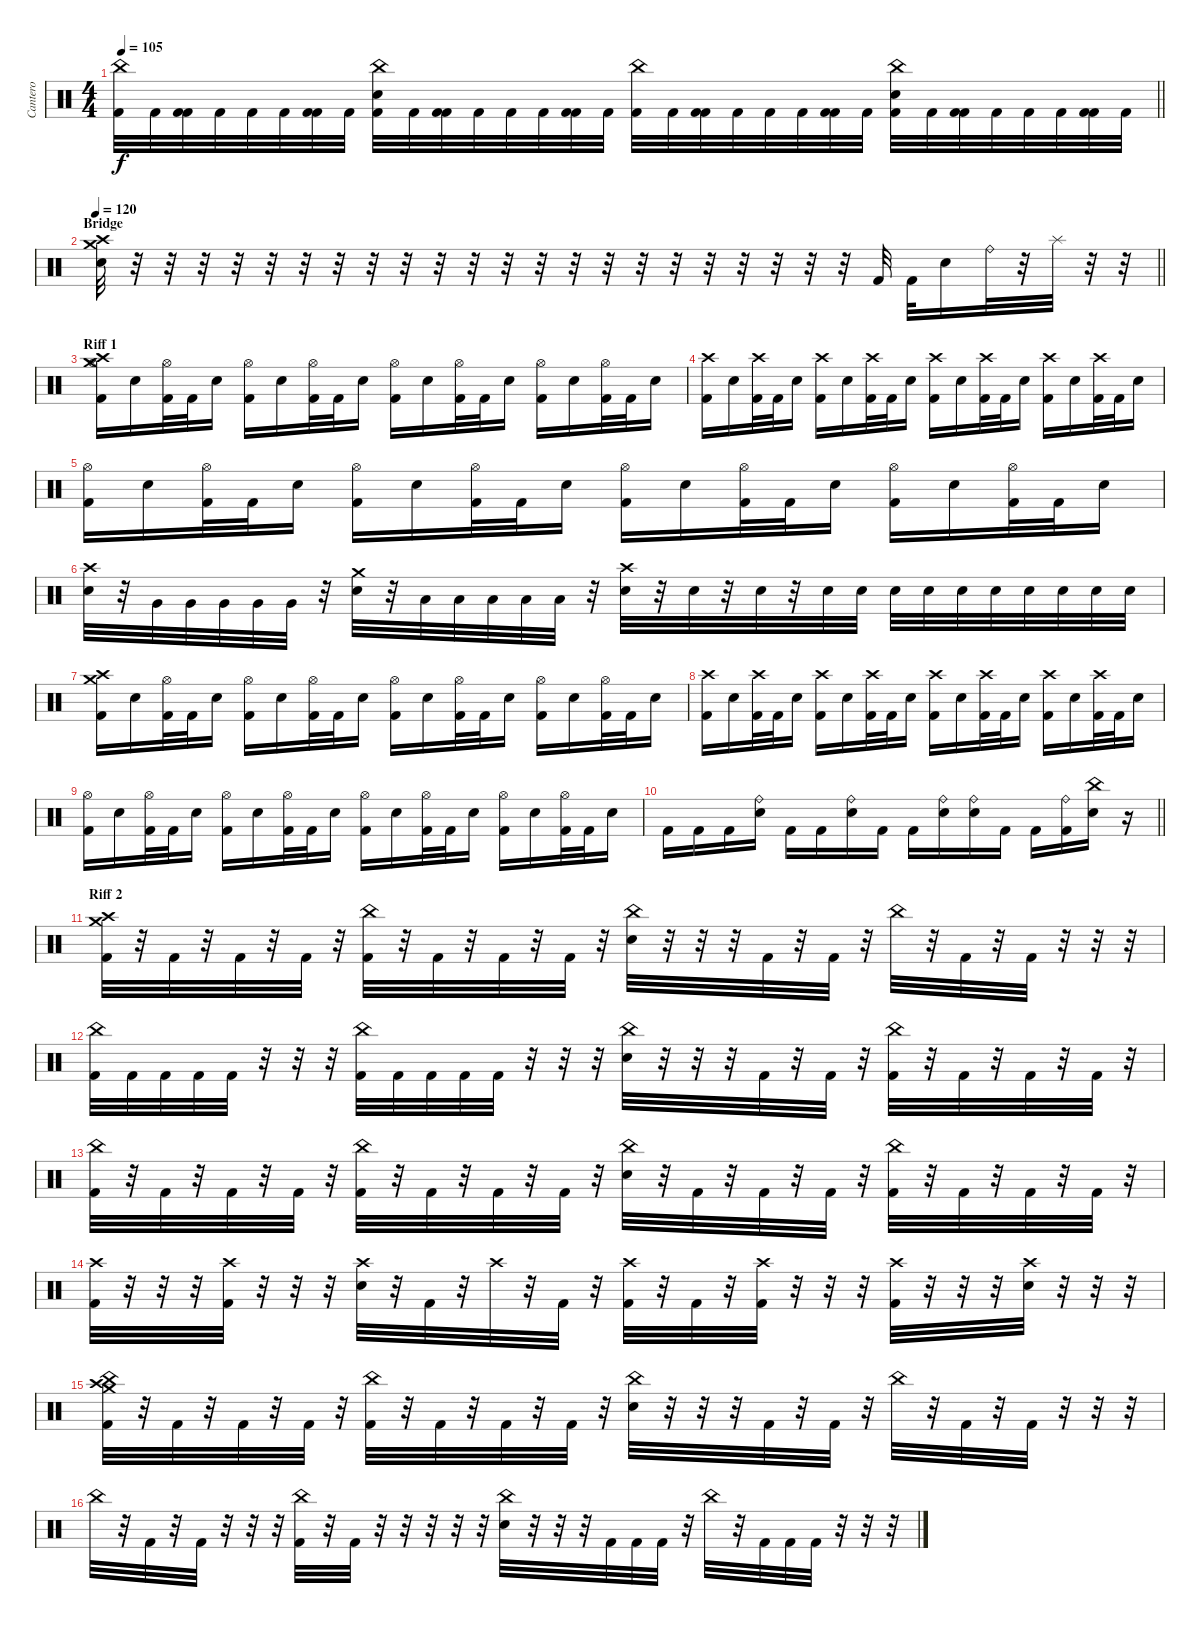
\track ("Cantero" "Cantero") {instrument percussion}
\staff {score}
\articulation defaults
\ts (4 4)
\tempo 105
\clef neutral
\barLineRight lightlight
\ks c
("China (hit)" "Kick (hit) 2").32{dy f} "Kick (hit) 2".32 ("Kick (hit) 2" "Kick (hit) 2").32 "Kick (hit) 2".32 "Kick (hit) 2".32 "Kick (hit) 2".32 ("Kick (hit) 2" "Kick (hit) 2").32 "Kick (hit) 2".32 ("China (hit)" "Electric Snare (hit)" "Kick (hit) 2").32 "Kick (hit) 2".32 ("Kick (hit) 2" "Kick (hit) 2").32 "Kick (hit) 2".32 "Kick (hit) 2".32 "Kick (hit) 2".32 ("Kick (hit) 2" "Kick (hit) 2").32 "Kick (hit) 2".32 ("China (hit)" "Kick (hit) 2").32 "Kick (hit) 2".32 ("Kick (hit) 2" "Kick (hit) 2").32 "Kick (hit) 2".32 "Kick (hit) 2".32 "Kick (hit) 2".32 ("Kick (hit) 2" "Kick (hit) 2").32 "Kick (hit) 2".32 ("China (hit)" "Electric Snare (hit)" "Kick (hit) 2").32 "Kick (hit) 2".32 ("Kick (hit) 2" "Kick (hit) 2").32 "Kick (hit) 2".32 "Kick (hit) 2".32 "Kick (hit) 2".32 ("Kick (hit) 2" "Kick (hit) 2").32 "Kick (hit) 2".32 |
\section ("" "Bridge")
\tempo 120
\barLineRight lightlight
("Crash high (hit)" "Crash medium (hit)" "Snare (hit) 2").32 r.32 r.32 r.32 r.32 r.32 r.32 r.32 r.32 r.32 r.32 r.32 r.32 r.32 r.32 r.32 r.32 r.32 r.32 r.32 r.32 r.32 r.32 "Kick (hit) 2".32 "Kick (hit) 2".32 "Electric Snare (hit)".16 "Ride (bell)".32 r.32 "Splash (hit)".32 r.32 r.32 |
\section ("" "Riff 1")
("Kick (hit) 2" "Crash high (hit)" "Crash medium (hit)" "Hi-Hat (open)").16 "Electric Snare (hit)".16 ("Kick (hit) 2" "Hi-Hat (open)").32 "Kick (hit) 2".32 "Electric Snare (hit)".16 ("Kick (hit) 2" "Hi-Hat (open)").16 "Electric Snare (hit)".16 ("Kick (hit) 2" "Hi-Hat (open)").32 "Kick (hit) 2".32 "Electric Snare (hit)".16 ("Kick (hit) 2" "Hi-Hat (open)").16 "Electric Snare (hit)".16 ("Kick (hit) 2" "Hi-Hat (open)").32 "Kick (hit) 2".32 "Electric Snare (hit)".16 ("Kick (hit) 2" "Hi-Hat (open)").16 "Electric Snare (hit)".16 ("Kick (hit) 2" "Hi-Hat (open)").32 "Kick (hit) 2".32 "Electric Snare (hit)".16 |
("Kick (hit) 2" "Crash high (hit)").16 "Electric Snare (hit)".16 ("Kick (hit) 2" "Crash high (hit)").32 "Kick (hit) 2".32 "Electric Snare (hit)".16 ("Kick (hit) 2" "Crash high (hit)").16 "Electric Snare (hit)".16 ("Kick (hit) 2" "Crash high (hit)").32 "Kick (hit) 2".32 "Electric Snare (hit)".16 ("Kick (hit) 2" "Crash high (hit)").16 "Electric Snare (hit)".16 ("Kick (hit) 2" "Crash high (hit)").32 "Kick (hit) 2".32 "Electric Snare (hit)".16 ("Kick (hit) 2" "Crash high (hit)").16 "Electric Snare (hit)".16 ("Kick (hit) 2" "Crash high (hit)").32 "Kick (hit) 2".32 "Electric Snare (hit)".16 |
("Kick (hit) 2" "Hi-Hat (open)").16 "Electric Snare (hit)".16 ("Kick (hit) 2" "Hi-Hat (open)").32 "Kick (hit) 2".32 "Electric Snare (hit)".16 ("Kick (hit) 2" "Hi-Hat (open)").16 "Electric Snare (hit)".16 ("Kick (hit) 2" "Hi-Hat (open)").32 "Kick (hit) 2".32 "Electric Snare (hit)".16 ("Kick (hit) 2" "Hi-Hat (open)").16 "Electric Snare (hit)".16 ("Kick (hit) 2" "Hi-Hat (open)").32 "Kick (hit) 2".32 "Electric Snare (hit)".16 ("Kick (hit) 2" "Hi-Hat (open)").16 "Electric Snare (hit)".16 ("Kick (hit) 2" "Hi-Hat (open)").32 "Kick (hit) 2".32 "Electric Snare (hit)".16 |
("Crash high (hit)" "Electric Snare (hit)").32 r.32 "Very Low Tom (hit)".32 "Very Low Tom (hit)".32 "Very Low Tom (hit)".32 "Very Low Tom (hit)".32 "Very Low Tom (hit)".32 r.32 ("Crash medium (hit)" "Electric Snare (hit)").32 r.32 "Low Floor Tom (hit)".32 "Low Floor Tom (hit)".32 "Low Floor Tom (hit)".32 "Low Floor Tom (hit)".32 "Low Floor Tom (hit)".32 r.32 ("Crash high (hit)" "Electric Snare (hit)").32 r.32 "Electric Snare (hit)".32 r.32 "Electric Snare (hit)".32 r.32 "Electric Snare (hit)".32 "Electric Snare (hit)".32 "Electric Snare (hit)".32 "Electric Snare (hit)".32 "Electric Snare (hit)".32 "Electric Snare (hit)".32 "Electric Snare (hit)".32 "Electric Snare (hit)".32 "Electric Snare (hit)".32 "Electric Snare (hit)".32 |
("Kick (hit) 2" "Crash high (hit)" "Crash medium (hit)").16 "Electric Snare (hit)".16 ("Kick (hit) 2" "Hi-Hat (open)").32 "Kick (hit) 2".32 "Electric Snare (hit)".16 ("Kick (hit) 2" "Hi-Hat (open)").16 "Electric Snare (hit)".16 ("Kick (hit) 2" "Hi-Hat (open)").32 "Kick (hit) 2".32 "Electric Snare (hit)".16 ("Kick (hit) 2" "Hi-Hat (open)").16 "Electric Snare (hit)".16 ("Kick (hit) 2" "Hi-Hat (open)").32 "Kick (hit) 2".32 "Electric Snare (hit)".16 ("Kick (hit) 2" "Hi-Hat (open)").16 "Electric Snare (hit)".16 ("Kick (hit) 2" "Hi-Hat (open)").32 "Kick (hit) 2".32 "Electric Snare (hit)".16 |
("Kick (hit) 2" "Crash high (hit)").16 "Electric Snare (hit)".16 ("Kick (hit) 2" "Crash high (hit)").32 "Kick (hit) 2".32 "Electric Snare (hit)".16 ("Kick (hit) 2" "Crash high (hit)").16 "Electric Snare (hit)".16 ("Kick (hit) 2" "Crash high (hit)").32 "Kick (hit) 2".32 "Electric Snare (hit)".16 ("Kick (hit) 2" "Crash high (hit)").16 "Electric Snare (hit)".16 ("Kick (hit) 2" "Crash high (hit)").32 "Kick (hit) 2".32 "Electric Snare (hit)".16 ("Kick (hit) 2" "Crash high (hit)").16 "Electric Snare (hit)".16 ("Kick (hit) 2" "Crash high (hit)").32 "Kick (hit) 2".32 "Electric Snare (hit)".16 |
("Kick (hit) 2" "Hi-Hat (open)").16 "Electric Snare (hit)".16 ("Kick (hit) 2" "Hi-Hat (open)").32 "Kick (hit) 2".32 "Electric Snare (hit)".16 ("Kick (hit) 2" "Hi-Hat (open)").16 "Electric Snare (hit)".16 ("Kick (hit) 2" "Hi-Hat (open)").32 "Kick (hit) 2".32 "Electric Snare (hit)".16 ("Kick (hit) 2" "Hi-Hat (open)").16 "Electric Snare (hit)".16 ("Kick (hit) 2" "Hi-Hat (open)").32 "Kick (hit) 2".32 "Electric Snare (hit)".16 ("Kick (hit) 2" "Hi-Hat (open)").16 "Electric Snare (hit)".16 ("Kick (hit) 2" "Hi-Hat (open)").32 "Kick (hit) 2".32 "Electric Snare (hit)".16 |
\barLineRight lightlight "Kick (hit) 2".16 "Kick (hit) 2".16 "Kick (hit) 2".16
("Electric Snare (hit)" "Ride (bell)").16 "Kick (hit) 2".16 "Kick (hit) 2".16 ("Electric Snare (hit)" "Ride (bell)").16 "Kick (hit) 2".16 "Kick (hit) 2".16 ("Electric Snare (hit)" "Ride (bell)").16 ("Electric Snare (hit)" "Ride (bell)").16 "Kick (hit) 2".16 "Kick (hit) 2".16 ("Kick (hit) 2" "Ride (bell)").16 ("Electric Snare (hit)" "China (hit)").16 r.16 |
\section ("" "Riff 2")
("Kick (hit) 2" "Crash high (hit)" "Crash medium (hit)").32 r.32 "Kick (hit) 2".32 r.32 "Kick (hit) 2".32 r.32 "Kick (hit) 2".32 r.32 ("China (hit)" "Kick (hit) 2").32 r.32 "Kick (hit) 2".32 r.32 "Kick (hit) 2".32 r.32 "Kick (hit) 2".32 r.32 ("China (hit)" "Electric Snare (hit)").32 r.32 r.32 r.32 "Kick (hit) 2".32 r.32 "Kick (hit) 2".32 r.32 "China (hit)".32 r.32 "Kick (hit) 2".32 r.32 "Kick (hit) 2".32 r.32 r.32 r.32 |
("China (hit)" "Kick (hit) 2").32 "Kick (hit) 2".32 "Kick (hit) 2".32 "Kick (hit) 2".32 "Kick (hit) 2".32 r.32 r.32 r.32 ("China (hit)" "Kick (hit) 2").32 "Kick (hit) 2".32 "Kick (hit) 2".32 "Kick (hit) 2".32 "Kick (hit) 2".32 r.32 r.32 r.32 ("China (hit)" "Electric Snare (hit)").32 r.32 r.32 r.32 "Kick (hit) 2".32 r.32 "Kick (hit) 2".32 r.32 ("China (hit)" "Kick (hit) 2").32 r.32 "Kick (hit) 2".32 r.32 "Kick (hit) 2".32 r.32 "Kick (hit) 2".32 r.32 |
("China (hit)" "Kick (hit) 2").32 r.32 "Kick (hit) 2".32 r.32 "Kick (hit) 2".32 r.32 "Kick (hit) 2".32 r.32 ("China (hit)" "Kick (hit) 2").32 r.32 "Kick (hit) 2".32 r.32 "Kick (hit) 2".32 r.32 "Kick (hit) 2".32 r.32 ("China (hit)" "Electric Snare (hit)").32 r.32 "Kick (hit) 2".32 r.32 "Kick (hit) 2".32 r.32 "Kick (hit) 2".32 r.32 ("China (hit)" "Kick (hit) 2").32 r.32 "Kick (hit) 2".32 r.32 "Kick (hit) 2".32 r.32 "Kick (hit) 2".32 r.32 |
("Crash high (hit)" "Kick (hit) 2").32 r.32 r.32 r.32 ("Crash high (hit)" "Kick (hit) 2").32 r.32 r.32 r.32 ("Crash high (hit)" "Electric Snare (hit)").32 r.32 "Kick (hit) 2".32 r.32 "Crash high (hit)".32 r.32 "Kick (hit) 2".32 r.32 ("Crash high (hit)" "Kick (hit) 2").32 r.32 "Kick (hit) 2".32 r.32 ("Crash high (hit)" "Kick (hit) 2").32 r.32 r.32 r.32 ("Crash high (hit)" "Kick (hit) 2").32 r.32 r.32 r.32 ("Crash high (hit)" "Electric Snare (hit)").32 r.32 r.32 r.32 |
("China (hit)" "Kick (hit) 2" "Crash medium (hit)" "Crash high (hit)").32 r.32 "Kick (hit) 2".32 r.32 "Kick (hit) 2".32 r.32 "Kick (hit) 2".32 r.32 ("China (hit)" "Kick (hit) 2").32 r.32 "Kick (hit) 2".32 r.32 "Kick (hit) 2".32 r.32 "Kick (hit) 2".32 r.32 ("China (hit)" "Electric Snare (hit)").32 r.32 r.32 r.32 "Kick (hit) 2".32 r.32 "Kick (hit) 2".32 r.32 "China (hit)".32 r.32 "Kick (hit) 2".32 r.32 "Kick (hit) 2".32 r.32 r.32 r.32 |
"China (hit)".32 r.32 "Kick (hit) 2".32 r.32 "Kick (hit) 2".32 r.32 r.32 r.32 ("China (hit)" "Kick (hit) 2").32 r.32 "Kick (hit) 2".32 r.32 r.32 r.32 r.32 r.32 ("China (hit)" "Electric Snare (hit)").32 r.32 r.32 r.32 "Kick (hit) 2".32 "Kick (hit) 2".32 "Kick (hit) 2".32 r.32 "China (hit)".32 r.32 "Kick (hit) 2".32 "Kick (hit) 2".32 "Kick (hit) 2".32 r.32 r.32 r.32
